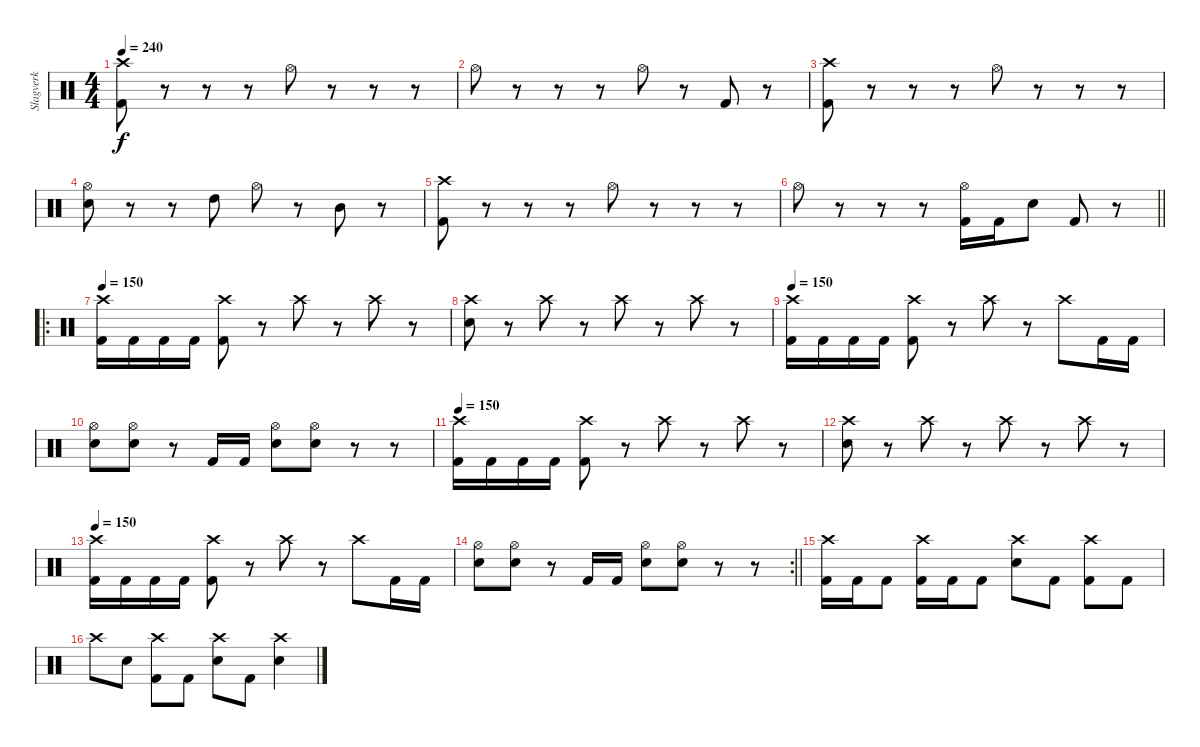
\track ("Slagverk" "Slagverk") {instrument percussion}
\staff {score}
\articulation defaults
\ts (4 4)
\tempo 240
\clef neutral
\ks c
("Crash high (hit)" "Kick (hit) 2").8{dy f} r.8 r.8 r.8 "Hi-Hat (open)".8 r.8 r.8 r.8 |
"Hi-Hat (open)".8 r.8 r.8 r.8 "Hi-Hat (open)".8 r.8 "Kick (hit) 2".8 r.8 |
("Crash high (hit)" "Kick (hit) 2").8 r.8 r.8 r.8 "Hi-Hat (open)".8 r.8 r.8 r.8 |
("Hi-Hat (open)" "Electric Snare (hit)").8 r.8 r.8 "High Tom (hit)".8 "Hi-Hat (open)".8 r.8 "Mid Tom (hit)".8 r.8 |
("Crash high (hit)" "Kick (hit) 2").8 r.8 r.8 r.8 "Hi-Hat (open)".8 r.8 r.8 r.8 |
\barLineRight lightlight "Hi-Hat (open)".8
r.8 r.8 r.8 ("Hi-Hat (open)" "Kick (hit) 2").16 "Kick (hit) 2".16 "Electric Snare (hit)".8 "Kick (hit) 2".8 r.8 |
\ro
\section ("" "")
\tempo 150
("Crash high (hit)" "Kick (hit) 2").16 "Kick (hit) 2".16 "Kick (hit) 2".16 "Kick (hit) 2".16 ("Crash high (hit)" "Kick (hit) 2").8 r.8 "Crash high (hit)".8 r.8 "Crash high (hit)".8 r.8 |
("Crash high (hit)" "Electric Snare (hit)").8 r.8 "Crash high (hit)".8 r.8 "Crash high (hit)".8 r.8 "Crash high (hit)".8 r.8 |
\tempo 150
("Crash high (hit)" "Kick (hit) 2").16 "Kick (hit) 2".16 "Kick (hit) 2".16 "Kick (hit) 2".16 ("Crash high (hit)" "Kick (hit) 2").8 r.8 "Crash high (hit)".8 r.8 "Crash high (hit)".8 "Kick (hit) 2".16 "Kick (hit) 2".16 |
("Hi-Hat (open)" "Electric Snare (hit)").8 ("Hi-Hat (open)" "Electric Snare (hit)").8 r.8 "Kick (hit) 2".16 "Kick (hit) 2".16 ("Hi-Hat (open)" "Electric Snare (hit)").8 ("Hi-Hat (open)" "Electric Snare (hit)").8 r.8 r.8 |
\tempo 150
("Crash high (hit)" "Kick (hit) 2").16 "Kick (hit) 2".16 "Kick (hit) 2".16 "Kick (hit) 2".16 ("Crash high (hit)" "Kick (hit) 2").8 r.8 "Crash high (hit)".8 r.8 "Crash high (hit)".8 r.8 |
("Crash high (hit)" "Electric Snare (hit)").8 r.8 "Crash high (hit)".8 r.8 "Crash high (hit)".8 r.8 "Crash high (hit)".8 r.8 |
\tempo 150
("Crash high (hit)" "Kick (hit) 2").16 "Kick (hit) 2".16 "Kick (hit) 2".16 "Kick (hit) 2".16 ("Crash high (hit)" "Kick (hit) 2").8 r.8 "Crash high (hit)".8 r.8 "Crash high (hit)".8 "Kick (hit) 2".16 "Kick (hit) 2".16 |
\rc 2
\barLineRight lightlight
("Hi-Hat (open)" "Electric Snare (hit)").8 ("Hi-Hat (open)" "Electric Snare (hit)").8 r.8 "Kick (hit) 2".16 "Kick (hit) 2".16 ("Hi-Hat (open)" "Electric Snare (hit)").8 ("Hi-Hat (open)" "Electric Snare (hit)").8 r.8 r.8 |
\section ("" "")
("Crash high (hit)" "Kick (hit) 2").16 "Kick (hit) 2".16 "Kick (hit) 2".8 ("Crash high (hit)" "Kick (hit) 2").16 "Kick (hit) 2".16 "Kick (hit) 2".8 ("Crash high (hit)" "Electric Snare (hit)").8 "Kick (hit) 2".8 ("Crash high (hit)" "Kick (hit) 2").8 "Kick (hit) 2".8 |
"Crash high (hit)".8 "Electric Snare (hit)".8 ("Crash high (hit)" "Kick (hit) 2").8 "Kick (hit) 2".8 ("Crash high (hit)" "Electric Snare (hit)").8 "Kick (hit) 2".8 ("Crash high (hit)" "Electric Snare (hit)").4
